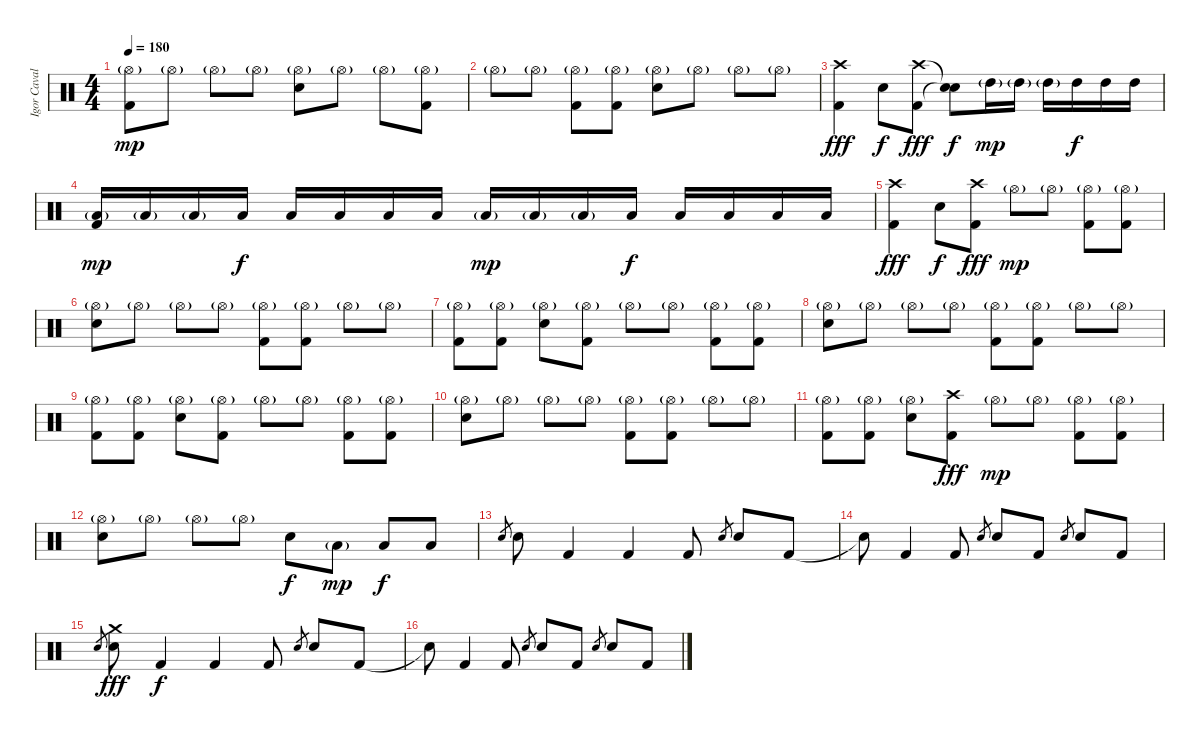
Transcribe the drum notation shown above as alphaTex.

\track ("Igor Cavalera" "Igor Caval") {instrument percussion}
\staff {score}
\articulation defaults
\ts (4 4)
\tempo 180
\clef neutral
\ks c
("Hi-Hat (open)"{g} "Kick (hit) 2").8{dy mp} "Hi-Hat (open)"{g}.8 "Hi-Hat (open)"{g}.8 "Hi-Hat (open)"{g}.8 ("Hi-Hat (open)"{g} "Electric Snare (hit)").8 "Hi-Hat (open)"{g}.8 "Hi-Hat (open)"{g}.8 ("Hi-Hat (open)"{g} "Kick (hit) 2").8 |
"Hi-Hat (open)"{g}.8 "Hi-Hat (open)"{g}.8 ("Hi-Hat (open)"{g} "Kick (hit) 2").8 ("Hi-Hat (open)"{g} "Kick (hit) 2").8 ("Hi-Hat (open)"{g} "Electric Snare (hit)").8 "Hi-Hat (open)"{g}.8 "Hi-Hat (open)"{g}.8 "Hi-Hat (open)"{g}.8 |
("Crash high (hit)" "Kick (hit) 2").4{dy fff} "Electric Snare (hit)".8{dy f} ("Crash high (hit)" "Kick (hit) 2").8{dy fff} ("Snare (hit)"{t} "Snare (hit)"{t}).8{dy f} "High Tom (hit)"{g}.16{dy mp} "High Tom (hit)"{g}.16 "High Tom (hit)"{g}.16 "High Tom (hit)".16{dy f} "High Tom (hit)".16 "High Tom (hit)".16 |
("Low Tom (hit)"{g} "Kick (hit) 2").16{dy mp} "Low Tom (hit)"{g}.16 "Low Tom (hit)"{g}.16 "Low Tom (hit)".16{dy f} "Low Tom (hit)".16 "Low Tom (hit)".16 "Low Tom (hit)".16 "Low Tom (hit)".16 "Low Floor Tom (hit)"{g}.16{dy mp} "Low Floor Tom (hit)"{g}.16 "Low Floor Tom (hit)"{g}.16 "Low Floor Tom (hit)".16{dy f} "Low Floor Tom (hit)".16 "Low Floor Tom (hit)".16 "Low Floor Tom (hit)".16 "Low Floor Tom (hit)".16 |
("Crash high (hit)" "Kick (hit) 2").4{dy fff} "Electric Snare (hit)".8{dy f} ("Crash high (hit)" "Kick (hit) 2").8{dy fff} "Hi-Hat (open)"{g}.8{dy mp} "Hi-Hat (open)"{g}.8 ("Hi-Hat (open)"{g} "Kick (hit) 2").8 ("Hi-Hat (open)"{g} "Kick (hit) 2").8 |
("Hi-Hat (open)"{g} "Electric Snare (hit)").8 "Hi-Hat (open)"{g}.8 "Hi-Hat (open)"{g}.8 "Hi-Hat (open)"{g}.8 ("Hi-Hat (open)"{g} "Kick (hit) 2").8 ("Hi-Hat (open)"{g} "Kick (hit) 2").8 "Hi-Hat (open)"{g}.8 "Hi-Hat (open)"{g}.8 |
("Hi-Hat (open)"{g} "Kick (hit) 2").8 ("Hi-Hat (open)"{g} "Kick (hit) 2").8 ("Hi-Hat (open)"{g} "Electric Snare (hit)").8 ("Hi-Hat (open)"{g} "Kick (hit) 2").8 "Hi-Hat (open)"{g}.8 "Hi-Hat (open)"{g}.8 ("Hi-Hat (open)"{g} "Kick (hit) 2").8 ("Hi-Hat (open)"{g} "Kick (hit) 2").8 |
("Hi-Hat (open)"{g} "Electric Snare (hit)").8 "Hi-Hat (open)"{g}.8 "Hi-Hat (open)"{g}.8 "Hi-Hat (open)"{g}.8 ("Hi-Hat (open)"{g} "Kick (hit) 2").8 ("Hi-Hat (open)"{g} "Kick (hit) 2").8 "Hi-Hat (open)"{g}.8 "Hi-Hat (open)"{g}.8 |
("Hi-Hat (open)"{g} "Kick (hit) 2").8 ("Hi-Hat (open)"{g} "Kick (hit) 2").8 ("Hi-Hat (open)"{g} "Electric Snare (hit)").8 ("Hi-Hat (open)"{g} "Kick (hit) 2").8 "Hi-Hat (open)"{g}.8 "Hi-Hat (open)"{g}.8 ("Hi-Hat (open)"{g} "Kick (hit) 2").8 ("Hi-Hat (open)"{g} "Kick (hit) 2").8 |
("Hi-Hat (open)"{g} "Electric Snare (hit)").8 "Hi-Hat (open)"{g}.8 "Hi-Hat (open)"{g}.8 "Hi-Hat (open)"{g}.8 ("Hi-Hat (open)"{g} "Kick (hit) 2").8 ("Hi-Hat (open)"{g} "Kick (hit) 2").8 "Hi-Hat (open)"{g}.8 "Hi-Hat (open)"{g}.8 |
("Hi-Hat (open)"{g} "Kick (hit) 2").8 ("Hi-Hat (open)"{g} "Kick (hit) 2").8 ("Hi-Hat (open)"{g} "Electric Snare (hit)").8 ("Crash high (hit)" "Kick (hit) 2").8{dy fff} "Hi-Hat (open)"{g}.8{dy mp} "Hi-Hat (open)"{g}.8 ("Hi-Hat (open)"{g} "Kick (hit) 2").8 ("Hi-Hat (open)"{g} "Kick (hit) 2").8 |
("Hi-Hat (open)"{g} "Electric Snare (hit)").8 "Hi-Hat (open)"{g}.8 "Hi-Hat (open)"{g}.8 "Hi-Hat (open)"{g}.8 "Electric Snare (hit)".8{dy f} "Low Tom (hit)"{g}.8{dy mp} "Low Tom (hit)".8{dy f} "Low Tom (hit)".8 |
"Electric Snare (hit)".8{gr} "Electric Snare (hit)".8 "Kick (hit) 2".4 "Kick (hit) 2".4 "Kick (hit) 2".8 "Electric Snare (hit)".8{gr} "Electric Snare (hit)".8 "Kick (hit) 2".8 |
"Snare (hit)"{t}.8 "Kick (hit) 2".4 "Kick (hit) 2".8 "Electric Snare (hit)".8{gr} "Electric Snare (hit)".8 "Kick (hit) 2".8 "Electric Snare (hit)".8{gr} "Electric Snare (hit)".8 "Kick (hit) 2".8 |
"Electric Snare (hit)".8{gr} ("Crash medium (hit)" "Electric Snare (hit)").8{dy fff} "Kick (hit) 2".4{dy f} "Kick (hit) 2".4 "Kick (hit) 2".8 "Electric Snare (hit)".8{gr} "Electric Snare (hit)".8 "Kick (hit) 2".8 |
"Snare (hit)"{t}.8 "Kick (hit) 2".4 "Kick (hit) 2".8 "Electric Snare (hit)".8{gr} "Electric Snare (hit)".8 "Kick (hit) 2".8 "Electric Snare (hit)".8{gr} "Electric Snare (hit)".8 "Kick (hit) 2".8
